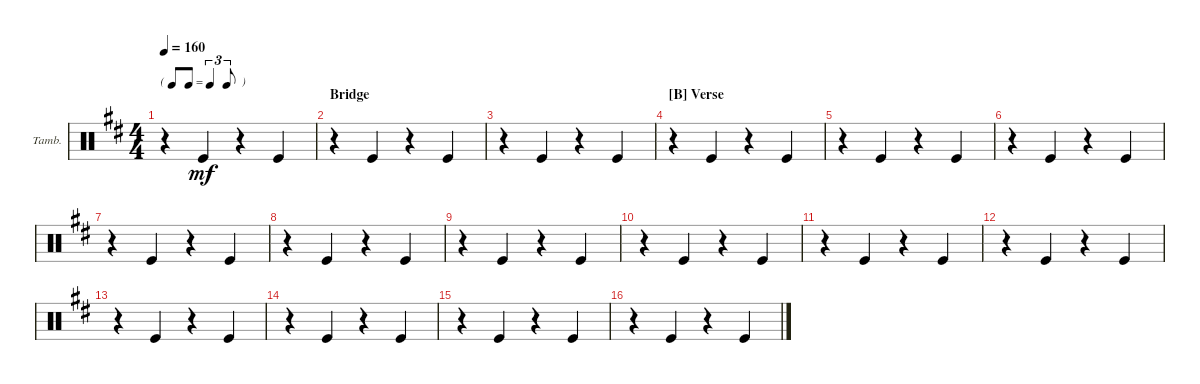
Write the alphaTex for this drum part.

\defaultSystemsLayout 4
\bracketExtendMode groupsimilarinstruments
\firstSystemTrackNameOrientation horizontal
\otherSystemsTrackNameOrientation horizontal
\track ("Tambourine" "Tamb.") {instrument percussion}
\staff {score}
\articulation defaults
\ts (4 4)
\tf triplet8th
\tempo 160
\clef neutral
\ks bminor
r.4{dy mf} "Kick (hit)".4 r.4 "Kick (hit)".4 |
\section ("" "Bridge")
r.4 "Kick (hit)".4 r.4 "Kick (hit)".4 |
r.4 "Kick (hit)".4 r.4 "Kick (hit)".4 |
\section ("B" "Verse")
r.4 "Kick (hit)".4 r.4 "Kick (hit)".4 |
r.4 "Kick (hit)".4 r.4 "Kick (hit)".4 |
r.4 "Kick (hit)".4 r.4 "Kick (hit)".4 |
r.4 "Kick (hit)".4 r.4 "Kick (hit)".4 |
r.4 "Kick (hit)".4 r.4 "Kick (hit)".4 |
r.4 "Kick (hit)".4 r.4 "Kick (hit)".4 |
r.4 "Kick (hit)".4 r.4 "Kick (hit)".4 |
r.4 "Kick (hit)".4 r.4 "Kick (hit)".4 |
r.4 "Kick (hit)".4 r.4 "Kick (hit)".4 |
r.4 "Kick (hit)".4 r.4 "Kick (hit)".4 |
r.4 "Kick (hit)".4 r.4 "Kick (hit)".4 |
r.4 "Kick (hit)".4 r.4 "Kick (hit)".4 |
r.4 "Kick (hit)".4 r.4 "Kick (hit)".4
